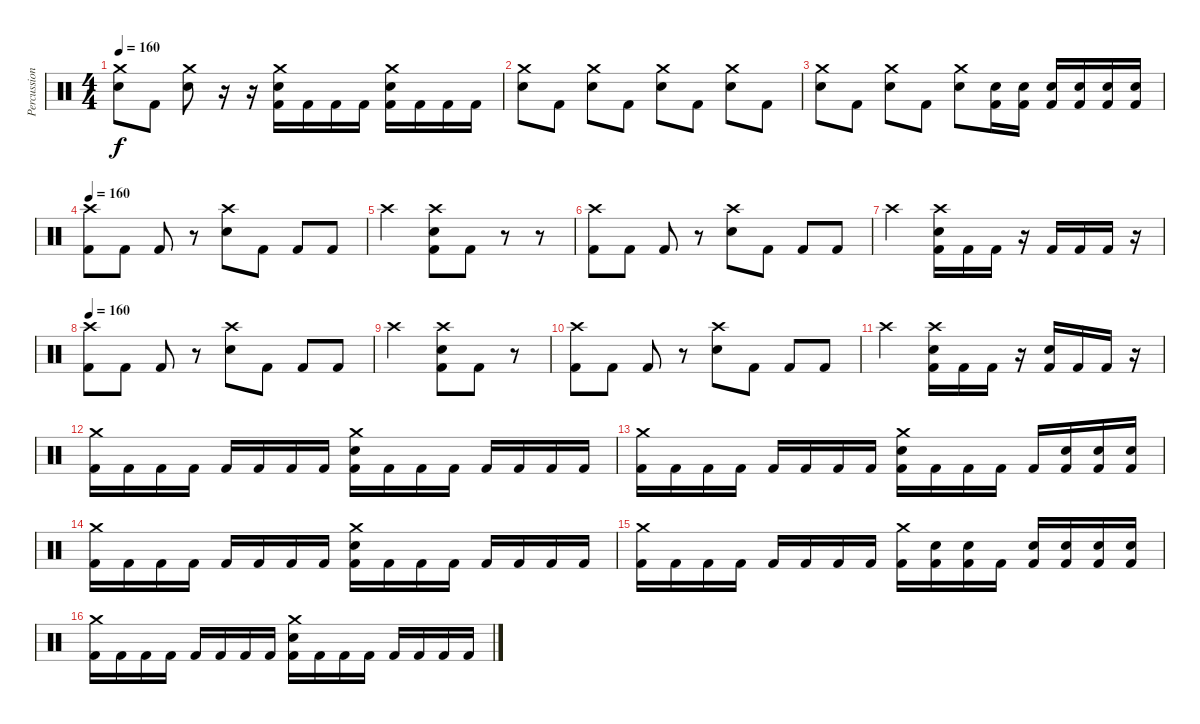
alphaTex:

\track ("Percussion" "Percussion") {instrument percussion}
\staff {score}
\articulation defaults
\ts (4 4)
\tempo 160
\clef neutral
\ks c
("Crash medium (hit)" "Electric Snare (hit)").8{dy f} "Kick (hit) 2".8 ("Crash medium (hit)" "Electric Snare (hit)").8 r.16 r.16 ("Crash medium (hit)" "Electric Snare (hit)" "Kick (hit) 2").16 "Kick (hit) 2".16 "Kick (hit) 2".16 "Kick (hit) 2".16 ("Crash medium (hit)" "Electric Snare (hit)" "Kick (hit) 2").16 "Kick (hit) 2".16 "Kick (hit) 2".16 "Kick (hit) 2".16 |
("Crash medium (hit)" "Electric Snare (hit)").8 "Kick (hit) 2".8 ("Crash medium (hit)" "Electric Snare (hit)").8 "Kick (hit) 2".8 ("Crash medium (hit)" "Electric Snare (hit)").8 "Kick (hit) 2".8 ("Crash medium (hit)" "Electric Snare (hit)").8 "Kick (hit) 2".8 |
("Crash medium (hit)" "Electric Snare (hit)").8 "Kick (hit) 2".8 ("Crash medium (hit)" "Electric Snare (hit)").8 "Kick (hit) 2".8 ("Crash medium (hit)" "Electric Snare (hit)").8 ("Electric Snare (hit)" "Kick (hit) 2").16 ("Electric Snare (hit)" "Kick (hit) 2").16 ("Electric Snare (hit)" "Kick (hit) 2").16 ("Electric Snare (hit)" "Kick (hit) 2").16 ("Electric Snare (hit)" "Kick (hit) 2").16 ("Electric Snare (hit)" "Kick (hit) 2").16 |
\tempo 160
("Crash high (hit)" "Kick (hit) 2").8 "Kick (hit) 2".8 "Kick (hit) 2".8 r.8 ("Crash high (hit)" "Electric Snare (hit)").8 "Kick (hit) 2".8 "Kick (hit) 2".8 "Kick (hit) 2".8 |
"Crash high (hit)".2 ("Crash high (hit)" "Electric Snare (hit)" "Kick (hit) 2").8 "Kick (hit) 2".8 r.8 r.8 |
("Crash high (hit)" "Kick (hit) 2").8 "Kick (hit) 2".8 "Kick (hit) 2".8 r.8 ("Crash high (hit)" "Electric Snare (hit)").8 "Kick (hit) 2".8 "Kick (hit) 2".8 "Kick (hit) 2".8 |
"Crash high (hit)".2 ("Crash high (hit)" "Electric Snare (hit)" "Kick (hit) 2").16 "Kick (hit) 2".16 "Kick (hit) 2".16 r.16 "Kick (hit) 2".16 "Kick (hit) 2".16 "Kick (hit) 2".16 r.16 |
\tempo 160
("Crash high (hit)" "Kick (hit) 2").8 "Kick (hit) 2".8 "Kick (hit) 2".8 r.8 ("Crash high (hit)" "Electric Snare (hit)").8 "Kick (hit) 2".8 "Kick (hit) 2".8 "Kick (hit) 2".8 |
"Crash high (hit)".2 ("Crash high (hit)" "Electric Snare (hit)" "Kick (hit) 2").8 "Kick (hit) 2".8 r.8 |
("Crash high (hit)" "Kick (hit) 2").8 "Kick (hit) 2".8 "Kick (hit) 2".8 r.8 ("Crash high (hit)" "Electric Snare (hit)").8 "Kick (hit) 2".8 "Kick (hit) 2".8 "Kick (hit) 2".8 |
"Crash high (hit)".2 ("Crash high (hit)" "Electric Snare (hit)" "Kick (hit) 2").16 "Kick (hit) 2".16 "Kick (hit) 2".16 r.16 ("Electric Snare (hit)" "Kick (hit) 2").16 "Kick (hit) 2".16 "Kick (hit) 2".16 r.16 |
("Crash medium (hit)" "Kick (hit) 2").16 "Kick (hit) 2".16 "Kick (hit) 2".16 "Kick (hit) 2".16 "Kick (hit) 2".16 "Kick (hit) 2".16 "Kick (hit) 2".16 "Kick (hit) 2".16 ("Crash medium (hit)" "Electric Snare (hit)" "Kick (hit) 2").16 "Kick (hit) 2".16 "Kick (hit) 2".16 "Kick (hit) 2".16 "Kick (hit) 2".16 "Kick (hit) 2".16 "Kick (hit) 2".16 "Kick (hit) 2".16 |
("Crash medium (hit)" "Kick (hit) 2").16 "Kick (hit) 2".16 "Kick (hit) 2".16 "Kick (hit) 2".16 "Kick (hit) 2".16 "Kick (hit) 2".16 "Kick (hit) 2".16 "Kick (hit) 2".16 ("Crash medium (hit)" "Electric Snare (hit)" "Kick (hit) 2").16 "Kick (hit) 2".16 "Kick (hit) 2".16 "Kick (hit) 2".16 "Kick (hit) 2".16 ("Electric Snare (hit)" "Kick (hit) 2").16 ("Electric Snare (hit)" "Kick (hit) 2").16 ("Electric Snare (hit)" "Kick (hit) 2").16 |
("Crash medium (hit)" "Kick (hit) 2").16 "Kick (hit) 2".16 "Kick (hit) 2".16 "Kick (hit) 2".16 "Kick (hit) 2".16 "Kick (hit) 2".16 "Kick (hit) 2".16 "Kick (hit) 2".16 ("Crash medium (hit)" "Electric Snare (hit)" "Kick (hit) 2").16 "Kick (hit) 2".16 "Kick (hit) 2".16 "Kick (hit) 2".16 "Kick (hit) 2".16 "Kick (hit) 2".16 "Kick (hit) 2".16 "Kick (hit) 2".16 |
("Crash medium (hit)" "Kick (hit) 2").16 "Kick (hit) 2".16 "Kick (hit) 2".16 "Kick (hit) 2".16 "Kick (hit) 2".16 "Kick (hit) 2".16 "Kick (hit) 2".16 "Kick (hit) 2".16 ("Crash medium (hit)" "Kick (hit) 2").16 ("Electric Snare (hit)" "Kick (hit) 2").16 ("Electric Snare (hit)" "Kick (hit) 2").16 "Kick (hit) 2".16 ("Electric Snare (hit)" "Kick (hit) 2").16 ("Electric Snare (hit)" "Kick (hit) 2").16 ("Electric Snare (hit)" "Kick (hit) 2").16 ("Electric Snare (hit)" "Kick (hit) 2").16 |
("Crash medium (hit)" "Kick (hit) 2").16 "Kick (hit) 2".16 "Kick (hit) 2".16 "Kick (hit) 2".16 "Kick (hit) 2".16 "Kick (hit) 2".16 "Kick (hit) 2".16 "Kick (hit) 2".16 ("Crash medium (hit)" "Electric Snare (hit)" "Kick (hit) 2").16 "Kick (hit) 2".16 "Kick (hit) 2".16 "Kick (hit) 2".16 "Kick (hit) 2".16 "Kick (hit) 2".16 "Kick (hit) 2".16 "Kick (hit) 2".16
